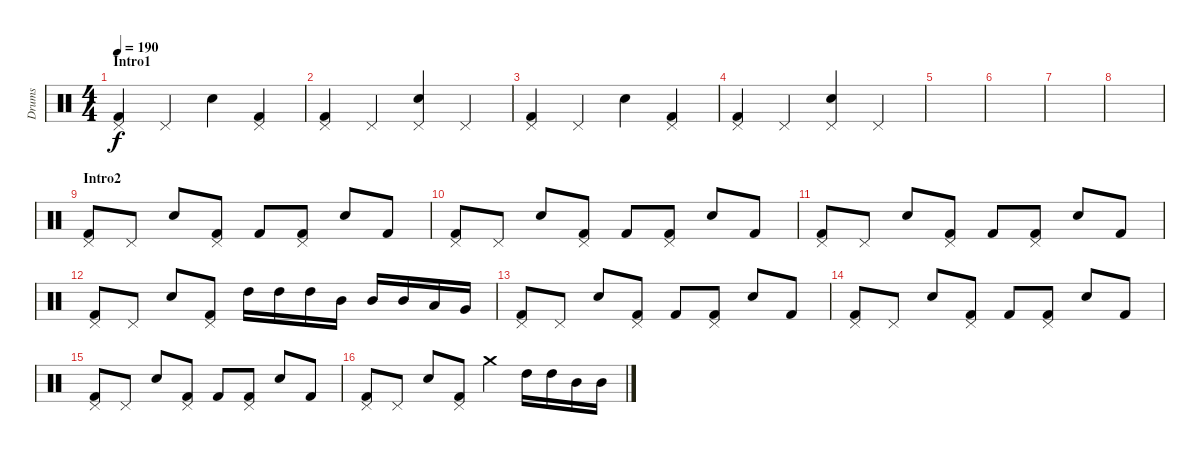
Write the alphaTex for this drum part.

\track ("Drums" "Drums") {instrument percussion}
\staff {score}
\articulation defaults
\ts (4 4)
\section ("" "Intro1")
\tempo 190
\clef neutral
\ks c
("Pedal Hi-Hat (hit)" "Kick (hit) 2").4{dy f} "Pedal Hi-Hat (hit)".4 "Electric Snare (hit)".4 ("Pedal Hi-Hat (hit)" "Kick (hit) 2").4 |
("Pedal Hi-Hat (hit)" "Kick (hit) 2").4 "Pedal Hi-Hat (hit)".4 ("Pedal Hi-Hat (hit)" "Electric Snare (hit)").4 "Pedal Hi-Hat (hit)".4 |
("Pedal Hi-Hat (hit)" "Kick (hit) 2").4 "Pedal Hi-Hat (hit)".4 "Electric Snare (hit)".4 ("Pedal Hi-Hat (hit)" "Kick (hit) 2").4 |
("Pedal Hi-Hat (hit)" "Kick (hit) 2").4 "Pedal Hi-Hat (hit)".4 ("Pedal Hi-Hat (hit)" "Electric Snare (hit)").4 "Pedal Hi-Hat (hit)".4 |
|
|
|
|
\section ("" "Intro2")
("Pedal Hi-Hat (hit)" "Kick (hit) 2").8 "Pedal Hi-Hat (hit)".8 "Electric Snare (hit)".8 ("Pedal Hi-Hat (hit)" "Kick (hit) 2").8 "Kick (hit) 2".8 ("Pedal Hi-Hat (hit)" "Kick (hit) 2").8 "Electric Snare (hit)".8 "Kick (hit) 2".8 |
("Pedal Hi-Hat (hit)" "Kick (hit) 2").8 "Pedal Hi-Hat (hit)".8 "Electric Snare (hit)".8 ("Pedal Hi-Hat (hit)" "Kick (hit) 2").8 "Kick (hit) 2".8 ("Pedal Hi-Hat (hit)" "Kick (hit) 2").8 "Electric Snare (hit)".8 "Kick (hit) 2".8 |
("Pedal Hi-Hat (hit)" "Kick (hit) 2").8 "Pedal Hi-Hat (hit)".8 "Electric Snare (hit)".8 ("Pedal Hi-Hat (hit)" "Kick (hit) 2").8 "Kick (hit) 2".8 ("Pedal Hi-Hat (hit)" "Kick (hit) 2").8 "Electric Snare (hit)".8 "Kick (hit) 2".8 |
("Pedal Hi-Hat (hit)" "Kick (hit) 2").8 "Pedal Hi-Hat (hit)".8 "Electric Snare (hit)".8 ("Pedal Hi-Hat (hit)" "Kick (hit) 2").8 "High Tom (hit)".16 "High Tom (hit)".16 "High Tom (hit)".16 "Mid Tom (hit)".16 "Mid Tom (hit)".16 "Mid Tom (hit)".16 "Low Tom (hit)".16 "Very Low Tom (hit)".16 |
("Pedal Hi-Hat (hit)" "Kick (hit) 2").8 "Pedal Hi-Hat (hit)".8 "Electric Snare (hit)".8 ("Pedal Hi-Hat (hit)" "Kick (hit) 2").8 "Kick (hit) 2".8 ("Pedal Hi-Hat (hit)" "Kick (hit) 2").8 "Electric Snare (hit)".8 "Kick (hit) 2".8 |
("Pedal Hi-Hat (hit)" "Kick (hit) 2").8 "Pedal Hi-Hat (hit)".8 "Electric Snare (hit)".8 ("Pedal Hi-Hat (hit)" "Kick (hit) 2").8 "Kick (hit) 2".8 ("Pedal Hi-Hat (hit)" "Kick (hit) 2").8 "Electric Snare (hit)".8 "Kick (hit) 2".8 |
("Pedal Hi-Hat (hit)" "Kick (hit) 2").8 "Pedal Hi-Hat (hit)".8 "Electric Snare (hit)".8 ("Pedal Hi-Hat (hit)" "Kick (hit) 2").8 "Kick (hit) 2".8 ("Pedal Hi-Hat (hit)" "Kick (hit) 2").8 "Electric Snare (hit)".8 "Kick (hit) 2".8 |
("Pedal Hi-Hat (hit)" "Kick (hit) 2").8 "Pedal Hi-Hat (hit)".8 "Electric Snare (hit)".8 ("Pedal Hi-Hat (hit)" "Kick (hit) 2").8 "Crash medium (hit)".4 "High Tom (hit)".16 "High Tom (hit)".16 "Mid Tom (hit)".16 "Mid Tom (hit)".16
